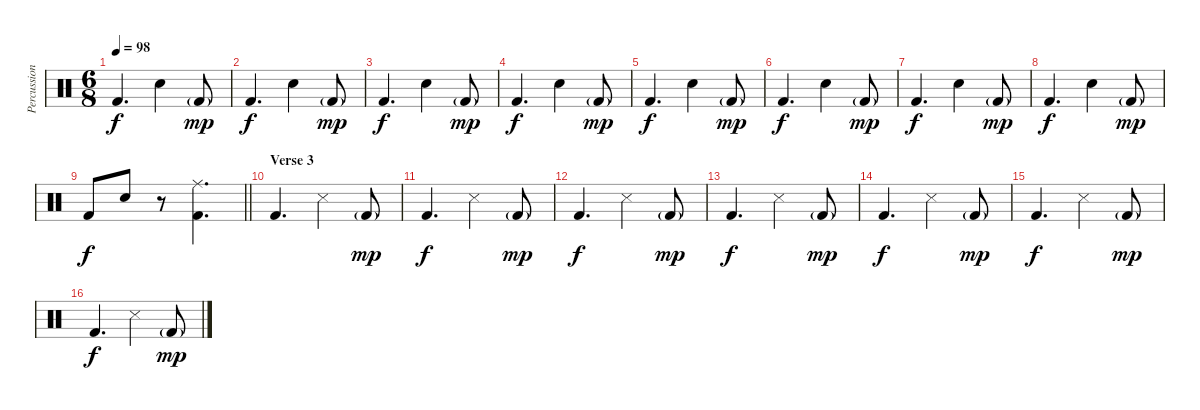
\track ("Percussion" "Percussion") {instrument percussion}
\staff {score}
\articulation defaults
\ts (6 8)
\tempo 98
\clef neutral
\ks c "Kick (hit) 2".4{d dy f} "Snare (hit) 2".4 "Kick (hit) 2"{g}.8{dy mp}
|
"Kick (hit) 2".4{d dy f} "Snare (hit) 2".4 "Kick (hit) 2"{g}.8{dy mp} |
"Kick (hit) 2".4{d dy f} "Snare (hit) 2".4 "Kick (hit) 2"{g}.8{dy mp} |
"Kick (hit) 2".4{d dy f} "Snare (hit) 2".4 "Kick (hit) 2"{g}.8{dy mp} |
"Kick (hit) 2".4{d dy f} "Snare (hit) 2".4 "Kick (hit) 2"{g}.8{dy mp} |
"Kick (hit) 2".4{d dy f} "Snare (hit) 2".4 "Kick (hit) 2"{g}.8{dy mp} |
"Kick (hit) 2".4{d dy f} "Snare (hit) 2".4 "Kick (hit) 2"{g}.8{dy mp} |
"Kick (hit) 2".4{d dy f} "Snare (hit) 2".4 "Kick (hit) 2"{g}.8{dy mp} |
\barLineRight lightlight "Kick (hit) 2".8{dy f} "Snare (hit) 2".8
r.8 ("Ride (middle)" "Kick (hit) 2").4{d} |
\section ("" "Verse 3")
"Kick (hit) 2".4{d} "Snare (side stick) 3".4 "Kick (hit) 2"{g}.8{dy mp} |
"Kick (hit) 2".4{d dy f} "Snare (side stick) 3".4 "Kick (hit) 2"{g}.8{dy mp} |
"Kick (hit) 2".4{d dy f} "Snare (side stick) 3".4 "Kick (hit) 2"{g}.8{dy mp} |
"Kick (hit) 2".4{d dy f} "Snare (side stick) 3".4 "Kick (hit) 2"{g}.8{dy mp} |
"Kick (hit) 2".4{d dy f} "Snare (side stick) 3".4 "Kick (hit) 2"{g}.8{dy mp} |
"Kick (hit) 2".4{d dy f} "Snare (side stick) 3".4 "Kick (hit) 2"{g}.8{dy mp} |
"Kick (hit) 2".4{d dy f} "Snare (side stick) 3".4 "Kick (hit) 2"{g}.8{dy mp}
